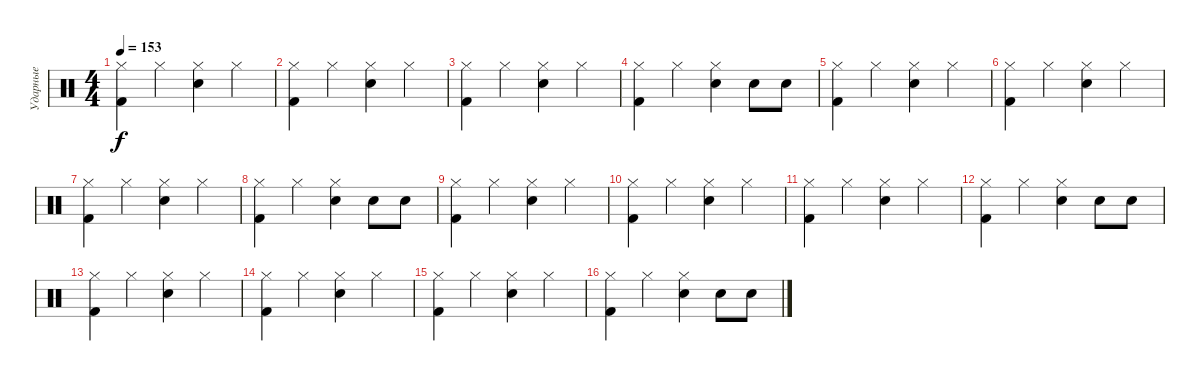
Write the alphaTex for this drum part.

\track ("Ударные" "Ударные") {instrument percussion}
\staff {score}
\articulation defaults
\ts (4 4)
\tempo 153
\clef neutral
\ks c
("Hi-Hat (closed)" "Kick (hit) 2").4{dy f} "Hi-Hat (closed)".4 ("Hi-Hat (closed)" "Snare (hit) 2").4 "Hi-Hat (closed)".4 |
("Hi-Hat (closed)" "Kick (hit) 2").4 "Hi-Hat (closed)".4 ("Hi-Hat (closed)" "Snare (hit) 2").4 "Hi-Hat (closed)".4 |
("Hi-Hat (closed)" "Kick (hit) 2").4 "Hi-Hat (closed)".4 ("Hi-Hat (closed)" "Snare (hit) 2").4 "Hi-Hat (closed)".4 |
("Hi-Hat (closed)" "Kick (hit) 2").4 "Hi-Hat (closed)".4 ("Hi-Hat (closed)" "Snare (hit) 2").4 "Snare (hit) 2".8 "Snare (hit) 2".8 |
("Hi-Hat (closed)" "Kick (hit) 2").4 "Hi-Hat (closed)".4 ("Hi-Hat (closed)" "Snare (hit) 2").4 "Hi-Hat (closed)".4 |
("Hi-Hat (closed)" "Kick (hit) 2").4 "Hi-Hat (closed)".4 ("Hi-Hat (closed)" "Snare (hit) 2").4 "Hi-Hat (closed)".4 |
("Hi-Hat (closed)" "Kick (hit) 2").4 "Hi-Hat (closed)".4 ("Hi-Hat (closed)" "Snare (hit) 2").4 "Hi-Hat (closed)".4 |
("Hi-Hat (closed)" "Kick (hit) 2").4 "Hi-Hat (closed)".4 ("Hi-Hat (closed)" "Snare (hit) 2").4 "Snare (hit) 2".8 "Snare (hit) 2".8 |
("Hi-Hat (closed)" "Kick (hit) 2").4 "Hi-Hat (closed)".4 ("Hi-Hat (closed)" "Snare (hit) 2").4 "Hi-Hat (closed)".4 |
("Hi-Hat (closed)" "Kick (hit) 2").4 "Hi-Hat (closed)".4 ("Hi-Hat (closed)" "Snare (hit) 2").4 "Hi-Hat (closed)".4 |
("Hi-Hat (closed)" "Kick (hit) 2").4 "Hi-Hat (closed)".4 ("Hi-Hat (closed)" "Snare (hit) 2").4 "Hi-Hat (closed)".4 |
("Hi-Hat (closed)" "Kick (hit) 2").4 "Hi-Hat (closed)".4 ("Hi-Hat (closed)" "Snare (hit) 2").4 "Snare (hit) 2".8 "Snare (hit) 2".8 |
("Hi-Hat (closed)" "Kick (hit) 2").4 "Hi-Hat (closed)".4 ("Hi-Hat (closed)" "Snare (hit) 2").4 "Hi-Hat (closed)".4 |
("Hi-Hat (closed)" "Kick (hit) 2").4 "Hi-Hat (closed)".4 ("Hi-Hat (closed)" "Snare (hit) 2").4 "Hi-Hat (closed)".4 |
("Hi-Hat (closed)" "Kick (hit) 2").4 "Hi-Hat (closed)".4 ("Hi-Hat (closed)" "Snare (hit) 2").4 "Hi-Hat (closed)".4 |
("Hi-Hat (closed)" "Kick (hit) 2").4{volume 5} "Hi-Hat (closed)".4 ("Hi-Hat (closed)" "Snare (hit) 2").4 "Snare (hit) 2".8 "Snare (hit) 2".8
